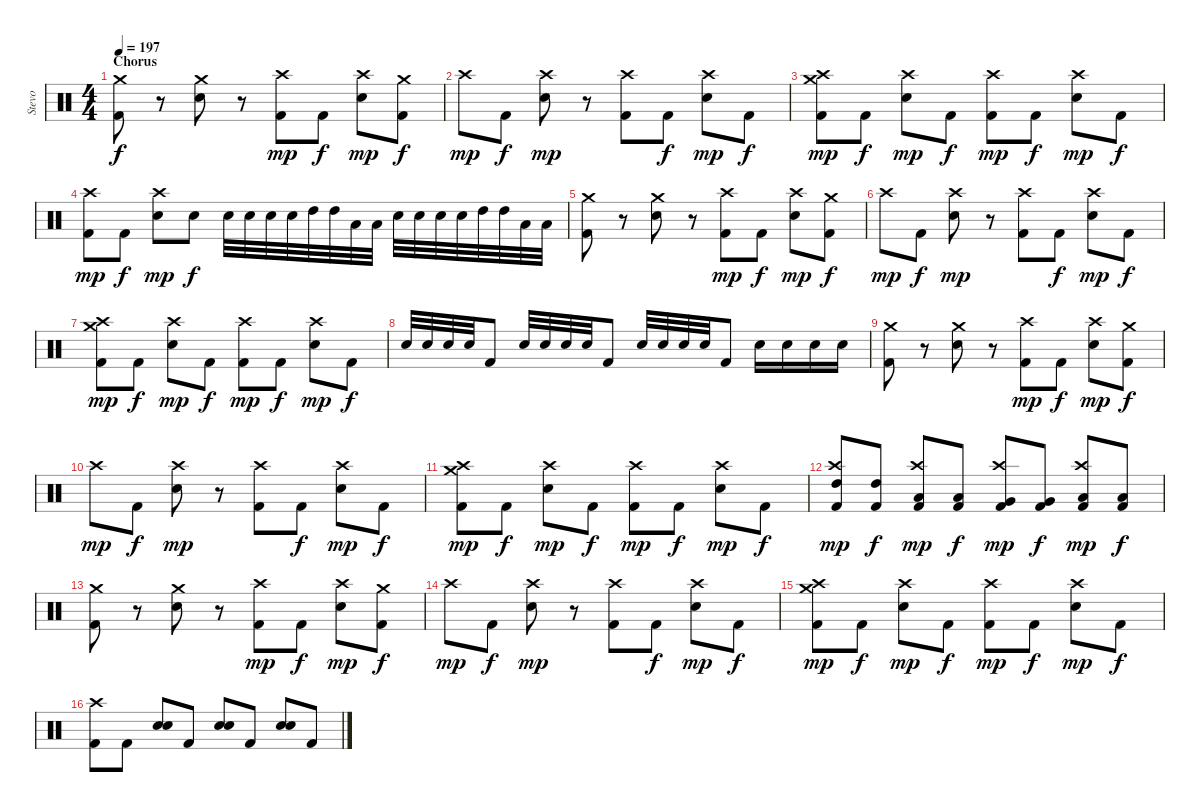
\track ("Stevo" "Stevo") {instrument percussion}
\staff {score}
\articulation defaults
\ts (4 4)
\section ("" "Chorus")
\tempo 197
\clef neutral
\ks c
("Crash medium (hit)" "Kick (hit) 2").8{dy f} r.8 ("Crash medium (hit)" "Electric Snare (hit)").8 r.8 ("Crash high (hit)" "Kick (hit) 2").8{dy mp} "Kick (hit) 2".8{dy f} ("Crash high (hit)" "Electric Snare (hit)").8{dy mp} ("Crash medium (hit)" "Kick (hit) 2").8{dy f} |
"Crash high (hit)".8{dy mp} "Kick (hit) 2".8{dy f} ("Crash high (hit)" "Electric Snare (hit)").8{dy mp} r.8 ("Crash high (hit)" "Kick (hit) 2").8 "Kick (hit) 2".8{dy f} ("Crash high (hit)" "Electric Snare (hit)").8{dy mp} "Kick (hit) 2".8{dy f} |
("Crash medium (hit)" "Crash high (hit)" "Kick (hit) 2").8{dy mp} "Kick (hit) 2".8{dy f} ("Crash high (hit)" "Electric Snare (hit)").8{dy mp} "Kick (hit) 2".8{dy f} ("Crash high (hit)" "Kick (hit) 2").8{dy mp} "Kick (hit) 2".8{dy f} ("Crash high (hit)" "Electric Snare (hit)").8{dy mp} "Kick (hit) 2".8{dy f} |
("Crash high (hit)" "Kick (hit) 2").8{dy mp} "Kick (hit) 2".8{dy f} ("Crash high (hit)" "Electric Snare (hit)").8{dy mp} "Electric Snare (hit)".8{dy f} "Electric Snare (hit)".32 "Electric Snare (hit)".32 "Electric Snare (hit)".32 "Electric Snare (hit)".32 "High Tom (hit)".32 "High Tom (hit)".32 "Low Tom (hit)".32 "Low Tom (hit)".32 "Electric Snare (hit)".32 "Electric Snare (hit)".32 "Electric Snare (hit)".32 "Electric Snare (hit)".32 "High Tom (hit)".32 "High Tom (hit)".32 "Low Tom (hit)".32 "Low Tom (hit)".32 |
("Crash medium (hit)" "Kick (hit) 2").8 r.8 ("Crash medium (hit)" "Electric Snare (hit)").8 r.8 ("Crash high (hit)" "Kick (hit) 2").8{dy mp} "Kick (hit) 2".8{dy f} ("Crash high (hit)" "Electric Snare (hit)").8{dy mp} ("Crash medium (hit)" "Kick (hit) 2").8{dy f} |
"Crash high (hit)".8{dy mp} "Kick (hit) 2".8{dy f} ("Crash high (hit)" "Electric Snare (hit)").8{dy mp} r.8 ("Crash high (hit)" "Kick (hit) 2").8 "Kick (hit) 2".8{dy f} ("Crash high (hit)" "Electric Snare (hit)").8{dy mp} "Kick (hit) 2".8{dy f} |
("Crash medium (hit)" "Crash high (hit)" "Kick (hit) 2").8{dy mp} "Kick (hit) 2".8{dy f} ("Crash high (hit)" "Electric Snare (hit)").8{dy mp} "Kick (hit) 2".8{dy f} ("Crash high (hit)" "Kick (hit) 2").8{dy mp} "Kick (hit) 2".8{dy f} ("Crash high (hit)" "Electric Snare (hit)").8{dy mp} "Kick (hit) 2".8{dy f} |
"Electric Snare (hit)".32 "Electric Snare (hit)".32 "Electric Snare (hit)".32 "Electric Snare (hit)".32 "Kick (hit) 2".8 "Electric Snare (hit)".32 "Electric Snare (hit)".32 "Electric Snare (hit)".32 "Electric Snare (hit)".32 "Kick (hit) 2".8 "Electric Snare (hit)".32 "Electric Snare (hit)".32 "Electric Snare (hit)".32 "Electric Snare (hit)".32 "Kick (hit) 2".8 "Electric Snare (hit)".16 "Electric Snare (hit)".16 "Electric Snare (hit)".16 "Electric Snare (hit)".16 |
("Crash medium (hit)" "Kick (hit) 2").8 r.8 ("Crash medium (hit)" "Electric Snare (hit)").8 r.8 ("Crash high (hit)" "Kick (hit) 2").8{dy mp} "Kick (hit) 2".8{dy f} ("Crash high (hit)" "Electric Snare (hit)").8{dy mp} ("Crash medium (hit)" "Kick (hit) 2").8{dy f} |
"Crash high (hit)".8{dy mp} "Kick (hit) 2".8{dy f} ("Crash high (hit)" "Electric Snare (hit)").8{dy mp} r.8 ("Crash high (hit)" "Kick (hit) 2").8 "Kick (hit) 2".8{dy f} ("Crash high (hit)" "Electric Snare (hit)").8{dy mp} "Kick (hit) 2".8{dy f} |
("Crash medium (hit)" "Crash high (hit)" "Kick (hit) 2").8{dy mp} "Kick (hit) 2".8{dy f} ("Crash high (hit)" "Electric Snare (hit)").8{dy mp} "Kick (hit) 2".8{dy f} ("Crash high (hit)" "Kick (hit) 2").8{dy mp} "Kick (hit) 2".8{dy f} ("Crash high (hit)" "Electric Snare (hit)").8{dy mp} "Kick (hit) 2".8{dy f} |
("Crash high (hit)" "High Tom (hit)" "Kick (hit) 2").8{dy mp} ("High Tom (hit)" "Kick (hit) 2").8{dy f} ("Crash high (hit)" "Low Tom (hit)" "Kick (hit) 2").8{dy mp} ("Low Tom (hit)" "Kick (hit) 2").8{dy f} ("Crash high (hit)" "Very Low Tom (hit)" "Kick (hit) 2").8{dy mp} ("Very Low Tom (hit)" "Kick (hit) 2").8{dy f} ("Crash high (hit)" "Low Floor Tom (hit)" "Kick (hit) 2").8{dy mp} ("Low Floor Tom (hit)" "Kick (hit) 2").8{dy f} |
("Crash medium (hit)" "Kick (hit) 2").8 r.8 ("Crash medium (hit)" "Electric Snare (hit)").8 r.8 ("Crash high (hit)" "Kick (hit) 2").8{dy mp} "Kick (hit) 2".8{dy f} ("Crash high (hit)" "Electric Snare (hit)").8{dy mp} ("Crash medium (hit)" "Kick (hit) 2").8{dy f} |
"Crash high (hit)".8{dy mp} "Kick (hit) 2".8{dy f} ("Crash high (hit)" "Electric Snare (hit)").8{dy mp} r.8 ("Crash high (hit)" "Kick (hit) 2").8 "Kick (hit) 2".8{dy f} ("Crash high (hit)" "Electric Snare (hit)").8{dy mp} "Kick (hit) 2".8{dy f} |
("Crash medium (hit)" "Crash high (hit)" "Kick (hit) 2").8{dy mp} "Kick (hit) 2".8{dy f} ("Crash high (hit)" "Electric Snare (hit)").8{dy mp} "Kick (hit) 2".8{dy f} ("Crash high (hit)" "Kick (hit) 2").8{dy mp} "Kick (hit) 2".8{dy f} ("Crash high (hit)" "Electric Snare (hit)").8{dy mp} "Kick (hit) 2".8{dy f} |
("Crash high (hit)" "Kick (hit) 2").8 "Kick (hit) 2".8 ("Electric Snare (hit)" "Electric Snare (hit)").8 "Kick (hit) 2".8 ("Electric Snare (hit)" "Electric Snare (hit)").8 "Kick (hit) 2".8 ("Electric Snare (hit)" "Electric Snare (hit)").8 "Kick (hit) 2".8
